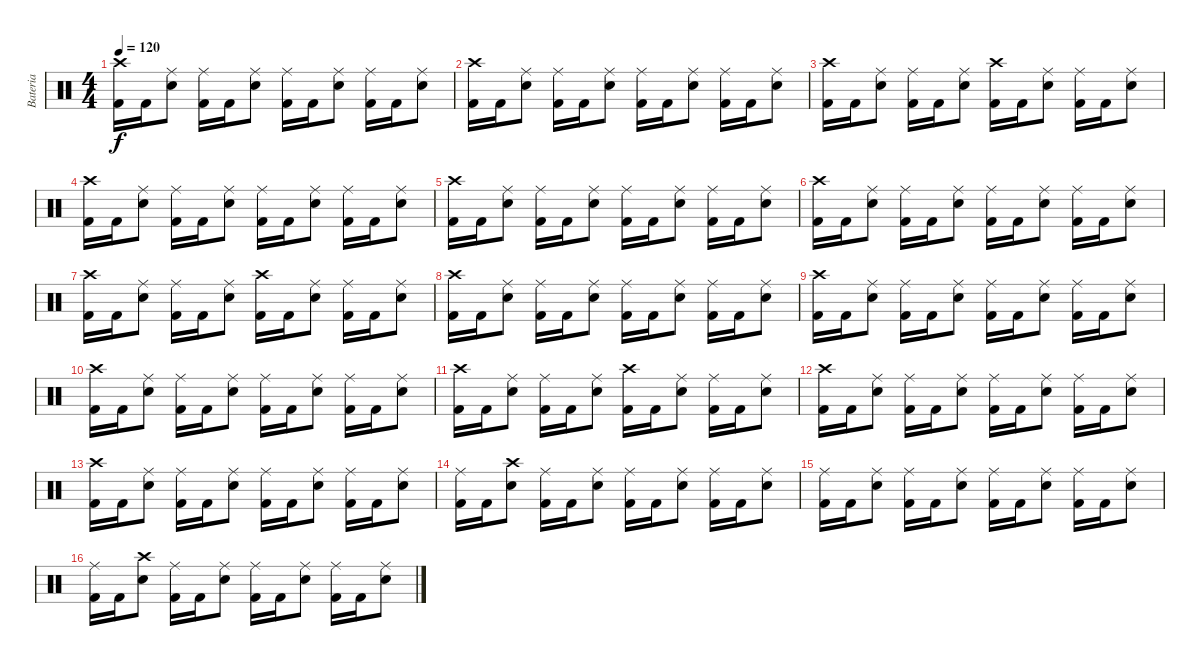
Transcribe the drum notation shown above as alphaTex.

\track ("Bateria" "Bateria") {instrument percussion}
\staff {score}
\articulation defaults
\ts (4 4)
\tempo 120
\clef neutral
\ks c
("Crash high (hit)" "Kick (hit) 2").16{dy f} "Kick (hit) 2".16 ("Ride (middle)" "Snare (hit) 2").8 ("Ride (middle)" "Kick (hit) 2").16 "Kick (hit) 2".16 ("Ride (middle)" "Snare (hit) 2").8 ("Ride (middle)" "Kick (hit) 2").16 "Kick (hit) 2".16 ("Ride (middle)" "Snare (hit) 2").8 ("Ride (middle)" "Kick (hit) 2").16 "Kick (hit) 2".16 ("Ride (middle)" "Snare (hit) 2").8 |
("Crash high (hit)" "Kick (hit) 2").16 "Kick (hit) 2".16 ("Ride (middle)" "Snare (hit) 2").8 ("Ride (middle)" "Kick (hit) 2").16 "Kick (hit) 2".16 ("Ride (middle)" "Snare (hit) 2").8 ("Ride (middle)" "Kick (hit) 2").16 "Kick (hit) 2".16 ("Ride (middle)" "Snare (hit) 2").8 ("Ride (middle)" "Kick (hit) 2").16 "Kick (hit) 2".16 ("Ride (middle)" "Snare (hit) 2").8 |
("Crash high (hit)" "Kick (hit) 2").16 "Kick (hit) 2".16 ("Ride (middle)" "Snare (hit) 2").8 ("Ride (middle)" "Kick (hit) 2").16 "Kick (hit) 2".16 ("Ride (middle)" "Snare (hit) 2").8 ("Crash high (hit)" "Kick (hit) 2").16 "Kick (hit) 2".16 ("Ride (middle)" "Snare (hit) 2").8 ("Ride (middle)" "Kick (hit) 2").16 "Kick (hit) 2".16 ("Ride (middle)" "Snare (hit) 2").8 |
("Crash high (hit)" "Kick (hit) 2").16 "Kick (hit) 2".16 ("Ride (middle)" "Snare (hit) 2").8 ("Ride (middle)" "Kick (hit) 2").16 "Kick (hit) 2".16 ("Ride (middle)" "Snare (hit) 2").8 ("Ride (middle)" "Kick (hit) 2").16 "Kick (hit) 2".16 ("Ride (middle)" "Snare (hit) 2").8 ("Ride (middle)" "Kick (hit) 2").16 "Kick (hit) 2".16 ("Ride (middle)" "Snare (hit) 2").8 |
("Crash high (hit)" "Kick (hit) 2").16 "Kick (hit) 2".16 ("Ride (middle)" "Snare (hit) 2").8 ("Ride (middle)" "Kick (hit) 2").16 "Kick (hit) 2".16 ("Ride (middle)" "Snare (hit) 2").8 ("Ride (middle)" "Kick (hit) 2").16 "Kick (hit) 2".16 ("Ride (middle)" "Snare (hit) 2").8 ("Ride (middle)" "Kick (hit) 2").16 "Kick (hit) 2".16 ("Ride (middle)" "Snare (hit) 2").8 |
("Crash high (hit)" "Kick (hit) 2").16 "Kick (hit) 2".16 ("Ride (middle)" "Snare (hit) 2").8 ("Ride (middle)" "Kick (hit) 2").16 "Kick (hit) 2".16 ("Ride (middle)" "Snare (hit) 2").8 ("Ride (middle)" "Kick (hit) 2").16 "Kick (hit) 2".16 ("Ride (middle)" "Snare (hit) 2").8 ("Ride (middle)" "Kick (hit) 2").16 "Kick (hit) 2".16 ("Ride (middle)" "Snare (hit) 2").8 |
("Crash high (hit)" "Kick (hit) 2").16 "Kick (hit) 2".16 ("Ride (middle)" "Snare (hit) 2").8 ("Ride (middle)" "Kick (hit) 2").16 "Kick (hit) 2".16 ("Ride (middle)" "Snare (hit) 2").8 ("Crash high (hit)" "Kick (hit) 2").16 "Kick (hit) 2".16 ("Ride (middle)" "Snare (hit) 2").8 ("Ride (middle)" "Kick (hit) 2").16 "Kick (hit) 2".16 ("Ride (middle)" "Snare (hit) 2").8 |
("Crash high (hit)" "Kick (hit) 2").16 "Kick (hit) 2".16 ("Ride (middle)" "Snare (hit) 2").8 ("Ride (middle)" "Kick (hit) 2").16 "Kick (hit) 2".16 ("Ride (middle)" "Snare (hit) 2").8 ("Ride (middle)" "Kick (hit) 2").16 "Kick (hit) 2".16 ("Ride (middle)" "Snare (hit) 2").8 ("Ride (middle)" "Kick (hit) 2").16 "Kick (hit) 2".16 ("Ride (middle)" "Snare (hit) 2").8 |
("Crash high (hit)" "Kick (hit) 2").16 "Kick (hit) 2".16 ("Ride (middle)" "Snare (hit) 2").8 ("Ride (middle)" "Kick (hit) 2").16 "Kick (hit) 2".16 ("Ride (middle)" "Snare (hit) 2").8 ("Ride (middle)" "Kick (hit) 2").16 "Kick (hit) 2".16 ("Ride (middle)" "Snare (hit) 2").8 ("Ride (middle)" "Kick (hit) 2").16 "Kick (hit) 2".16 ("Ride (middle)" "Snare (hit) 2").8 |
("Crash high (hit)" "Kick (hit) 2").16 "Kick (hit) 2".16 ("Ride (middle)" "Snare (hit) 2").8 ("Ride (middle)" "Kick (hit) 2").16 "Kick (hit) 2".16 ("Ride (middle)" "Snare (hit) 2").8 ("Ride (middle)" "Kick (hit) 2").16 "Kick (hit) 2".16 ("Ride (middle)" "Snare (hit) 2").8 ("Ride (middle)" "Kick (hit) 2").16 "Kick (hit) 2".16 ("Ride (middle)" "Snare (hit) 2").8 |
("Crash high (hit)" "Kick (hit) 2").16 "Kick (hit) 2".16 ("Ride (middle)" "Snare (hit) 2").8 ("Ride (middle)" "Kick (hit) 2").16 "Kick (hit) 2".16 ("Ride (middle)" "Snare (hit) 2").8 ("Crash high (hit)" "Kick (hit) 2").16 "Kick (hit) 2".16 ("Ride (middle)" "Snare (hit) 2").8 ("Ride (middle)" "Kick (hit) 2").16 "Kick (hit) 2".16 ("Ride (middle)" "Snare (hit) 2").8 |
("Crash high (hit)" "Kick (hit) 2").16 "Kick (hit) 2".16 ("Ride (middle)" "Snare (hit) 2").8 ("Ride (middle)" "Kick (hit) 2").16 "Kick (hit) 2".16 ("Ride (middle)" "Snare (hit) 2").8 ("Ride (middle)" "Kick (hit) 2").16 "Kick (hit) 2".16 ("Ride (middle)" "Snare (hit) 2").8 ("Ride (middle)" "Kick (hit) 2").16 "Kick (hit) 2".16 ("Ride (middle)" "Snare (hit) 2").8 |
("Crash high (hit)" "Kick (hit) 2").16 "Kick (hit) 2".16 ("Ride (middle)" "Snare (hit) 2").8 ("Ride (middle)" "Kick (hit) 2").16 "Kick (hit) 2".16 ("Ride (middle)" "Snare (hit) 2").8 ("Ride (middle)" "Kick (hit) 2").16 "Kick (hit) 2".16 ("Ride (middle)" "Snare (hit) 2").8 ("Ride (middle)" "Kick (hit) 2").16 "Kick (hit) 2".16 ("Ride (middle)" "Snare (hit) 2").8 |
("Ride (middle)" "Kick (hit) 2").16 "Kick (hit) 2".16 ("Crash high (hit)" "Snare (hit) 2").8 ("Ride (middle)" "Kick (hit) 2").16 "Kick (hit) 2".16 ("Ride (middle)" "Snare (hit) 2").8 ("Ride (middle)" "Kick (hit) 2").16 "Kick (hit) 2".16 ("Ride (middle)" "Snare (hit) 2").8 ("Ride (middle)" "Kick (hit) 2").16 "Kick (hit) 2".16 ("Ride (middle)" "Snare (hit) 2").8 |
("Ride (middle)" "Kick (hit) 2").16 "Kick (hit) 2".16 ("Ride (middle)" "Snare (hit) 2").8 ("Ride (middle)" "Kick (hit) 2").16 "Kick (hit) 2".16 ("Ride (middle)" "Snare (hit) 2").8 ("Ride (middle)" "Kick (hit) 2").16 "Kick (hit) 2".16 ("Ride (middle)" "Snare (hit) 2").8 ("Ride (middle)" "Kick (hit) 2").16 "Kick (hit) 2".16 ("Ride (middle)" "Snare (hit) 2").8 |
("Ride (middle)" "Kick (hit) 2").16 "Kick (hit) 2".16 ("Crash high (hit)" "Snare (hit) 2").8 ("Ride (middle)" "Kick (hit) 2").16 "Kick (hit) 2".16 ("Ride (middle)" "Snare (hit) 2").8 ("Ride (middle)" "Kick (hit) 2").16 "Kick (hit) 2".16 ("Ride (middle)" "Snare (hit) 2").8 ("Ride (middle)" "Kick (hit) 2").16 "Kick (hit) 2".16 ("Ride (middle)" "Snare (hit) 2").8
